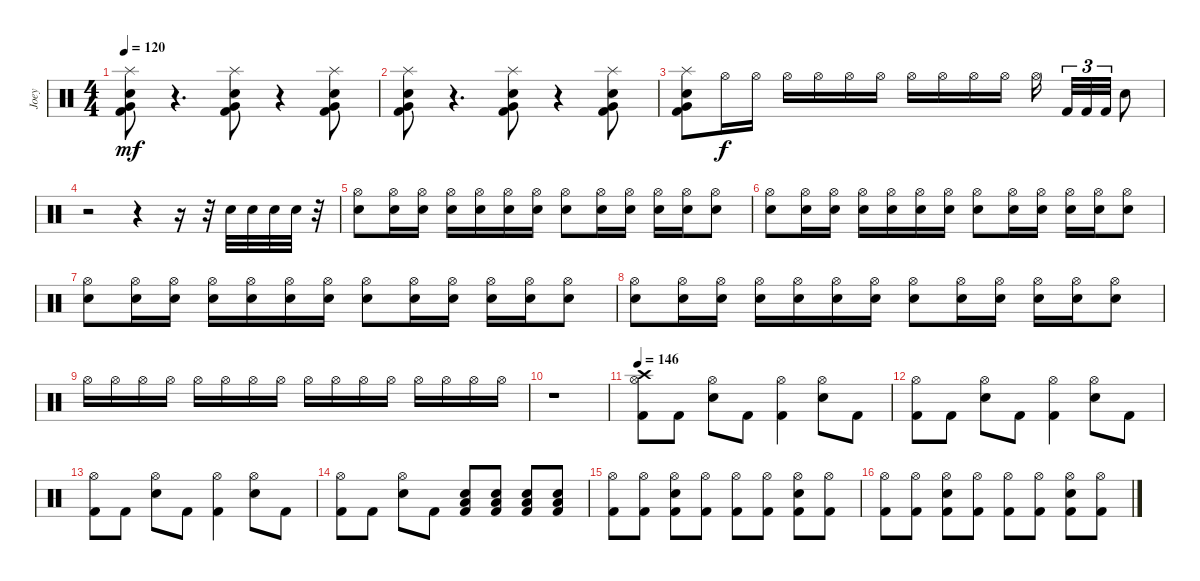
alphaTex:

\track ("Joey" "Joey") {instrument percussion}
\staff {score}
\articulation defaults
\ts (4 4)
\tempo 120
\clef neutral
\ks c
("Very Low Tom (hit)" "Kick (hit) 2" "Electric Snare (hit)" "Splash (hit)").8{dy mf} r.4{d} ("Very Low Tom (hit)" "Kick (hit) 2" "Electric Snare (hit)" "Splash (hit)").8 r.4 ("Very Low Tom (hit)" "Kick (hit) 2" "Electric Snare (hit)" "Splash (hit)").8 |
("Very Low Tom (hit)" "Kick (hit) 2" "Electric Snare (hit)" "Splash (hit)").8 r.4{d} ("Very Low Tom (hit)" "Kick (hit) 2" "Electric Snare (hit)" "Splash (hit)").8 r.4 ("Very Low Tom (hit)" "Kick (hit) 2" "Electric Snare (hit)" "Splash (hit)").8 |
("Very Low Tom (hit)" "Kick (hit) 2" "Electric Snare (hit)" "Splash (hit)").8 "Hi-Hat (open)".16{dy f} "Hi-Hat (open)".16 "Hi-Hat (open)".16 "Hi-Hat (open)".16 "Hi-Hat (open)".16 "Hi-Hat (open)".16 "Hi-Hat (open)".16 "Hi-Hat (open)".16 "Hi-Hat (open)".16 "Hi-Hat (open)".16 "Hi-Hat (open)".16{beam splitsecondary} "Kick (hit) 2".32{tu (3 2)} "Kick (hit) 2".32{tu (3 2)} "Kick (hit) 2".32{tu (3 2)} "Electric Snare (hit)".8 |
r.2 r.4 r.16 r.32 "Electric Snare (hit)".32 "Electric Snare (hit)".32 "Electric Snare (hit)".32 "Electric Snare (hit)".32 r.32 |
("Hi-Hat (open)" "Electric Snare (hit)").8 ("Hi-Hat (open)" "Electric Snare (hit)").16 ("Hi-Hat (open)" "Electric Snare (hit)").16 ("Hi-Hat (open)" "Electric Snare (hit)").16 ("Hi-Hat (open)" "Electric Snare (hit)").16 ("Hi-Hat (open)" "Electric Snare (hit)").16 ("Hi-Hat (open)" "Electric Snare (hit)").16 ("Hi-Hat (open)" "Electric Snare (hit)").8 ("Hi-Hat (open)" "Electric Snare (hit)").16 ("Hi-Hat (open)" "Electric Snare (hit)").16 ("Hi-Hat (open)" "Electric Snare (hit)").16 ("Hi-Hat (open)" "Electric Snare (hit)").16 ("Hi-Hat (open)" "Electric Snare (hit)").8 |
("Hi-Hat (open)" "Electric Snare (hit)").8 ("Hi-Hat (open)" "Electric Snare (hit)").16 ("Hi-Hat (open)" "Electric Snare (hit)").16 ("Hi-Hat (open)" "Electric Snare (hit)").16 ("Hi-Hat (open)" "Electric Snare (hit)").16 ("Hi-Hat (open)" "Electric Snare (hit)").16 ("Hi-Hat (open)" "Electric Snare (hit)").16 ("Hi-Hat (open)" "Electric Snare (hit)").8 ("Hi-Hat (open)" "Electric Snare (hit)").16 ("Hi-Hat (open)" "Electric Snare (hit)").16 ("Hi-Hat (open)" "Electric Snare (hit)").16 ("Hi-Hat (open)" "Electric Snare (hit)").16 ("Hi-Hat (open)" "Electric Snare (hit)").8 |
("Hi-Hat (open)" "Electric Snare (hit)").8 ("Hi-Hat (open)" "Electric Snare (hit)").16 ("Hi-Hat (open)" "Electric Snare (hit)").16 ("Hi-Hat (open)" "Electric Snare (hit)").16 ("Hi-Hat (open)" "Electric Snare (hit)").16 ("Hi-Hat (open)" "Electric Snare (hit)").16 ("Hi-Hat (open)" "Electric Snare (hit)").16 ("Hi-Hat (open)" "Electric Snare (hit)").8 ("Hi-Hat (open)" "Electric Snare (hit)").16 ("Hi-Hat (open)" "Electric Snare (hit)").16 ("Hi-Hat (open)" "Electric Snare (hit)").16 ("Hi-Hat (open)" "Electric Snare (hit)").16 ("Hi-Hat (open)" "Electric Snare (hit)").8 |
("Hi-Hat (open)" "Electric Snare (hit)").8 ("Hi-Hat (open)" "Electric Snare (hit)").16 ("Hi-Hat (open)" "Electric Snare (hit)").16 ("Hi-Hat (open)" "Electric Snare (hit)").16 ("Hi-Hat (open)" "Electric Snare (hit)").16 ("Hi-Hat (open)" "Electric Snare (hit)").16 ("Hi-Hat (open)" "Electric Snare (hit)").16 ("Hi-Hat (open)" "Electric Snare (hit)").8 ("Hi-Hat (open)" "Electric Snare (hit)").16 ("Hi-Hat (open)" "Electric Snare (hit)").16 ("Hi-Hat (open)" "Electric Snare (hit)").16 ("Hi-Hat (open)" "Electric Snare (hit)").16 ("Hi-Hat (open)" "Electric Snare (hit)").8 |
"Hi-Hat (open)".16 "Hi-Hat (open)".16 "Hi-Hat (open)".16 "Hi-Hat (open)".16 "Hi-Hat (open)".16 "Hi-Hat (open)".16 "Hi-Hat (open)".16 "Hi-Hat (open)".16 "Hi-Hat (open)".16 "Hi-Hat (open)".16 "Hi-Hat (open)".16 "Hi-Hat (open)".16 "Hi-Hat (open)".16 "Hi-Hat (open)".16 "Hi-Hat (open)".16 "Hi-Hat (open)".16 |
r.1 |
\tempo 146
("Hi-Hat (open)" "Crash high (hit)" "Kick (hit) 2").8 "Kick (hit) 2".8 ("Hi-Hat (open)" "Electric Snare (hit)").8 "Kick (hit) 2".8 ("Hi-Hat (open)" "Kick (hit) 2").4 ("Hi-Hat (open)" "Electric Snare (hit)").8 "Kick (hit) 2".8 |
("Hi-Hat (open)" "Kick (hit) 2").8 "Kick (hit) 2".8 ("Hi-Hat (open)" "Electric Snare (hit)").8 "Kick (hit) 2".8 ("Hi-Hat (open)" "Kick (hit) 2").4 ("Hi-Hat (open)" "Electric Snare (hit)").8 "Kick (hit) 2".8 |
("Hi-Hat (open)" "Kick (hit) 2").8 "Kick (hit) 2".8 ("Hi-Hat (open)" "Electric Snare (hit)").8 "Kick (hit) 2".8 ("Hi-Hat (open)" "Kick (hit) 2").4 ("Hi-Hat (open)" "Electric Snare (hit)").8 "Kick (hit) 2".8 |
("Hi-Hat (open)" "Kick (hit) 2").8 "Kick (hit) 2".8 ("Hi-Hat (open)" "Electric Snare (hit)").8 "Kick (hit) 2".8 ("Kick (hit) 2" "Electric Snare (hit)" "Low Floor Tom (hit)").8 ("Kick (hit) 2" "Electric Snare (hit)" "Low Floor Tom (hit)").8 ("Kick (hit) 2" "Electric Snare (hit)" "Low Floor Tom (hit)").8 ("Kick (hit) 2" "Electric Snare (hit)" "Low Floor Tom (hit)").8 |
("Hi-Hat (open)" "Kick (hit) 2").8 ("Hi-Hat (open)" "Kick (hit) 2").8 ("Hi-Hat (open)" "Electric Snare (hit)" "Kick (hit) 2").8 ("Hi-Hat (open)" "Kick (hit) 2").8 ("Hi-Hat (open)" "Kick (hit) 2").8 ("Hi-Hat (open)" "Kick (hit) 2").8 ("Hi-Hat (open)" "Electric Snare (hit)" "Kick (hit) 2").8 ("Hi-Hat (open)" "Kick (hit) 2").8 |
("Hi-Hat (open)" "Kick (hit) 2").8 ("Hi-Hat (open)" "Kick (hit) 2").8 ("Hi-Hat (open)" "Electric Snare (hit)" "Kick (hit) 2").8 ("Hi-Hat (open)" "Kick (hit) 2").8 ("Hi-Hat (open)" "Kick (hit) 2").8 ("Hi-Hat (open)" "Kick (hit) 2").8 ("Hi-Hat (open)" "Electric Snare (hit)" "Kick (hit) 2").8 ("Hi-Hat (open)" "Kick (hit) 2").8
